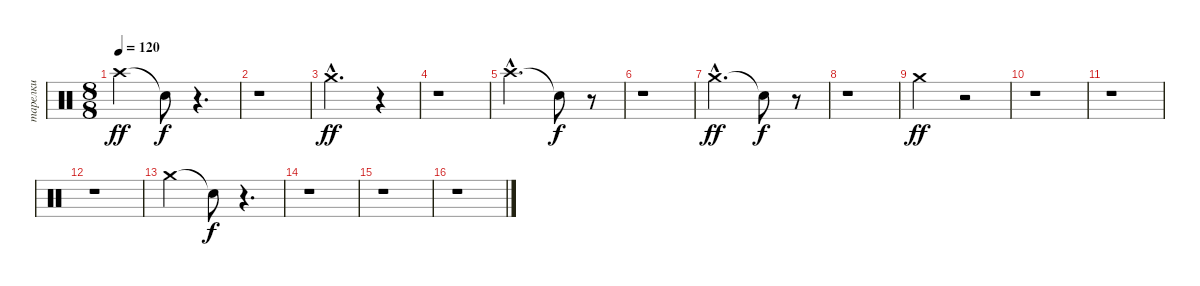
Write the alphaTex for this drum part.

\track ("тарелки" "тарелки") {instrument percussion}
\staff {score}
\articulation defaults
\ts (8 8)
\tempo 120
\clef neutral
\ks c "Crash high (hit)".2{dy ff} "Snare (hit)"{t}.8{dy f}
r.4{d} |
r.1 |
"Crash medium (hit)"{hac}.2{d dy ff} r.4 |
r.1 |
"Crash high (hit)"{hac}.2{d} "Snare (hit)"{t}.8{dy f} r.8 |
r.1 |
"Crash medium (hit)"{hac}.2{d dy ff} "Snare (hit)"{t}.8{dy f} r.8 |
r.1 |
"Crash medium (hit)".2{dy ff} r.2 |
r.1 |
r.1 |
r.1 |
"Crash medium (hit)".2 "Snare (hit)"{t}.8{dy f} r.4{d} |
r.1 |
r.1 |
r.1
